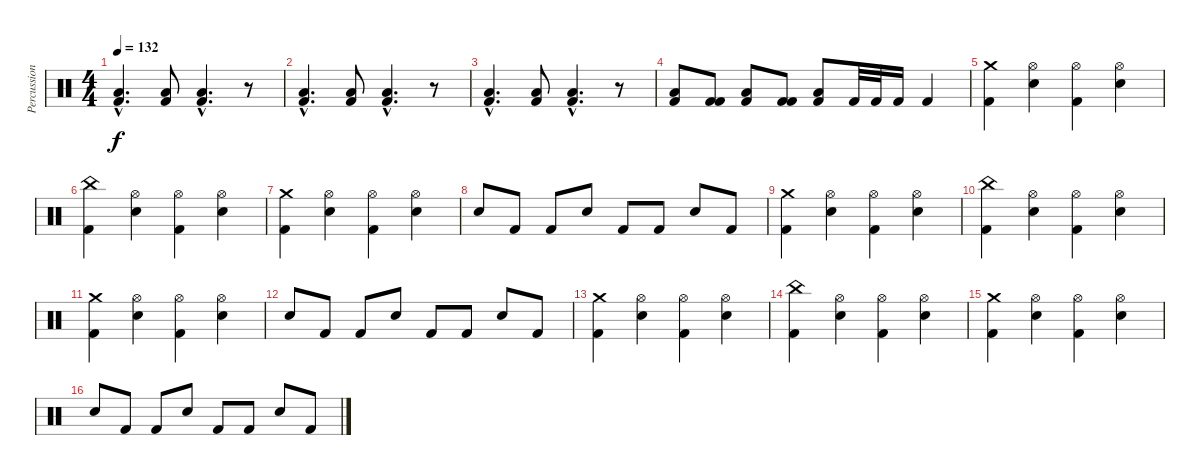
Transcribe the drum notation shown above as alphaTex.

\track ("Percussioni" "Percussion") {instrument percussion}
\staff {score}
\articulation defaults
\ts (4 4)
\tempo 132
\clef neutral
\ks c
("Low Floor Tom (hit)"{hac} "Kick (hit) 2"{hac}).4{d dy f} ("Low Floor Tom (hit)" "Kick (hit) 2").8 ("Low Floor Tom (hit)"{hac} "Kick (hit) 2"{hac}).4{d} r.8 |
("Low Floor Tom (hit)"{hac} "Kick (hit) 2"{hac}).4{d} ("Low Floor Tom (hit)" "Kick (hit) 2").8 ("Low Floor Tom (hit)"{hac} "Kick (hit) 2"{hac}).4{d} r.8 |
("Low Floor Tom (hit)"{hac} "Kick (hit) 2"{hac}).4{d} ("Low Floor Tom (hit)" "Kick (hit) 2").8 ("Low Floor Tom (hit)"{hac} "Kick (hit) 2"{hac}).4{d} r.8 |
("Low Floor Tom (hit)" "Kick (hit) 2").8 ("Kick (hit) 2" "Kick (hit) 2").8 ("Low Floor Tom (hit)" "Kick (hit) 2").8 ("Kick (hit) 2" "Kick (hit) 2").8 ("Low Floor Tom (hit)" "Kick (hit) 2").8 "Kick (hit) 2".32 "Kick (hit) 2".32 "Kick (hit) 2".16 "Kick (hit) 2".4 |
("Crash medium (hit)" "Kick (hit) 2").4 ("Hi-Hat (open)" "Snare (hit) 2").4 ("Hi-Hat (open)" "Kick (hit) 2").4 ("Hi-Hat (open)" "Snare (hit) 2").4 |
("China (hit)" "Kick (hit) 2").4 ("Hi-Hat (open)" "Snare (hit) 2").4 ("Hi-Hat (open)" "Kick (hit) 2").4 ("Hi-Hat (open)" "Snare (hit) 2").4 |
("Crash medium (hit)" "Kick (hit) 2").4 ("Hi-Hat (open)" "Snare (hit) 2").4 ("Hi-Hat (open)" "Kick (hit) 2").4 ("Hi-Hat (open)" "Snare (hit) 2").4 |
"Snare (hit) 2".8 "Kick (hit) 2".8 "Kick (hit) 2".8 "Snare (hit) 2".8 "Kick (hit) 2".8 "Kick (hit) 2".8 "Snare (hit) 2".8 "Kick (hit) 2".8 |
("Crash medium (hit)" "Kick (hit) 2").4 ("Hi-Hat (open)" "Snare (hit) 2").4 ("Hi-Hat (open)" "Kick (hit) 2").4 ("Hi-Hat (open)" "Snare (hit) 2").4 |
("China (hit)" "Kick (hit) 2").4 ("Hi-Hat (open)" "Snare (hit) 2").4 ("Hi-Hat (open)" "Kick (hit) 2").4 ("Hi-Hat (open)" "Snare (hit) 2").4 |
("Crash medium (hit)" "Kick (hit) 2").4 ("Hi-Hat (open)" "Snare (hit) 2").4 ("Hi-Hat (open)" "Kick (hit) 2").4 ("Hi-Hat (open)" "Snare (hit) 2").4 |
"Snare (hit) 2".8 "Kick (hit) 2".8 "Kick (hit) 2".8 "Snare (hit) 2".8 "Kick (hit) 2".8 "Kick (hit) 2".8 "Snare (hit) 2".8 "Kick (hit) 2".8 |
("Crash medium (hit)" "Kick (hit) 2").4 ("Hi-Hat (open)" "Snare (hit) 2").4 ("Hi-Hat (open)" "Kick (hit) 2").4 ("Hi-Hat (open)" "Snare (hit) 2").4 |
("China (hit)" "Kick (hit) 2").4 ("Hi-Hat (open)" "Snare (hit) 2").4 ("Hi-Hat (open)" "Kick (hit) 2").4 ("Hi-Hat (open)" "Snare (hit) 2").4 |
("Crash medium (hit)" "Kick (hit) 2").4 ("Hi-Hat (open)" "Snare (hit) 2").4 ("Hi-Hat (open)" "Kick (hit) 2").4 ("Hi-Hat (open)" "Snare (hit) 2").4 |
"Snare (hit) 2".8 "Kick (hit) 2".8 "Kick (hit) 2".8 "Snare (hit) 2".8 "Kick (hit) 2".8 "Kick (hit) 2".8 "Snare (hit) 2".8 "Kick (hit) 2".8
